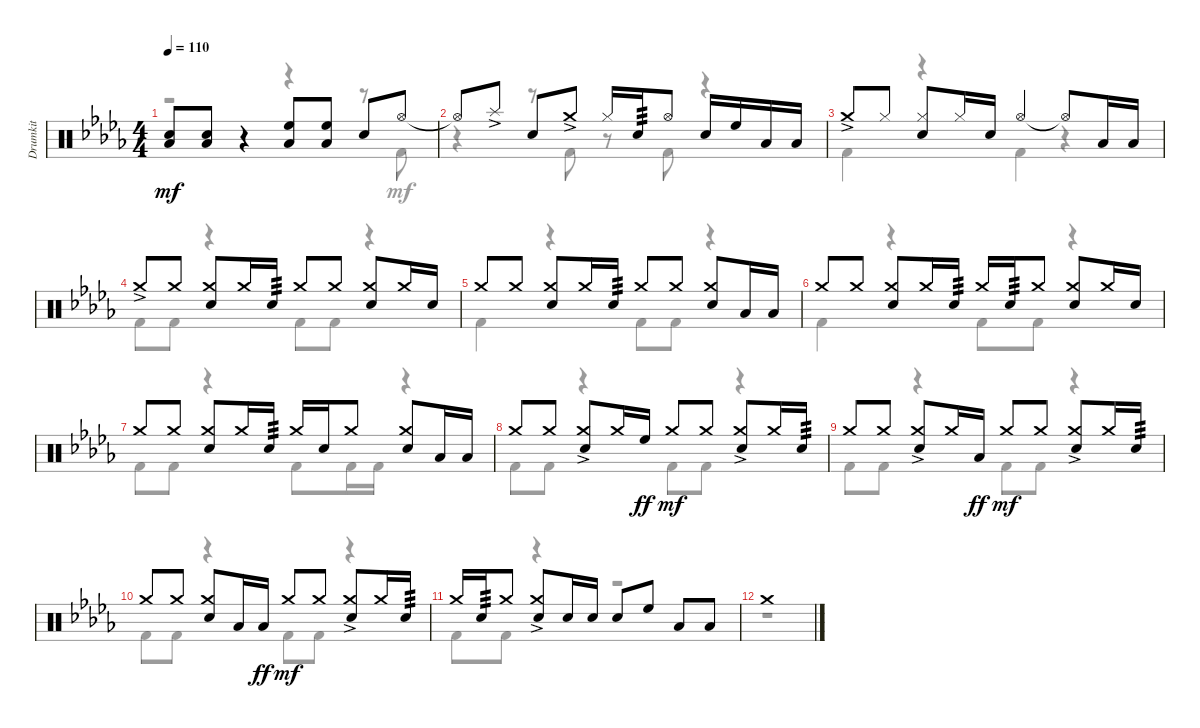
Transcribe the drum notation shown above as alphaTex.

\track ("Drumkit" "Drumkit") {instrument percussion}
\staff {score}
\articulation defaults
\voice
\ts (4 4)
\tempo 110
\clef neutral
\ks db
("Snare (hit) 2" "Low Floor Tom (hit)").8{dy mf} ("Snare (hit) 2" "Low Floor Tom (hit)").8 r.4 ("High Floor Tom (hit)" "Low Floor Tom (hit)").8 ("High Floor Tom (hit)" "Low Floor Tom (hit)").8 "Snare (hit) 2".8 "Hi-Hat (open)".8 |
"Hi-Hat (open)"{t}.8 "Splash (hit)"{ac}.8 "Snare (hit) 2".8 "Crash medium (hit)"{ac}.8 "Hi-Hat (closed)".16 "Snare (hit) 2".16{tp 3} "Hi-Hat (open)".8 "Snare (hit) 2".16 "High Floor Tom (hit)".16 "Low Floor Tom (hit)".16 "Low Floor Tom (hit)".16 |
"Crash medium (hit)"{ac}.8 "Hi-Hat (closed)".8 ("Hi-Hat (closed)" "Snare (hit) 2").8 "Hi-Hat (closed)".16 "Snare (hit) 2".16 "Hi-Hat (open)".4 "Hi-Hat (open)"{t}.8 "Low Floor Tom (hit)".16 "Low Floor Tom (hit)".16 |
\section ("" "")
"Crash medium (hit)"{ac}.8 "Crash medium (hit)".8 ("Crash medium (hit)" "Snare (hit) 2").8 "Crash medium (hit)".16 "Snare (hit) 2".16{tp 3} "Crash medium (hit)".8 "Crash medium (hit)".8 ("Crash medium (hit)" "Snare (hit) 2").8 "Crash medium (hit)".16 "Snare (hit) 2".16 |
"Crash medium (hit)".8 "Crash medium (hit)".8 ("Crash medium (hit)" "Snare (hit) 2").8 "Crash medium (hit)".16 "Snare (hit) 2".16{tp 3} "Crash medium (hit)".8 "Crash medium (hit)".8 ("Crash medium (hit)" "Snare (hit) 2").8 "Low Floor Tom (hit)".16 "Low Floor Tom (hit)".16 |
"Crash medium (hit)".8 "Crash medium (hit)".8 ("Crash medium (hit)" "Snare (hit) 2").8 "Crash medium (hit)".16 "Snare (hit) 2".16{tp 3} "Crash medium (hit)".16 "Snare (hit) 2".16{tp 3} "Crash medium (hit)".8 ("Crash medium (hit)" "Snare (hit) 2").8 "Crash medium (hit)".16 "Snare (hit) 2".16 |
"Crash medium (hit)".8 "Crash medium (hit)".8 ("Crash medium (hit)" "Snare (hit) 2").8 "Crash medium (hit)".16 "Snare (hit) 2".16{tp 3} "Crash medium (hit)".16 "Snare (hit) 2".16 "Crash medium (hit)".8 ("Crash medium (hit)" "Snare (hit) 2").8 "Low Floor Tom (hit)".16 "Low Floor Tom (hit)".16 |
"Crash medium (hit)".8 "Crash medium (hit)".8 ("Crash medium (hit)"{ac} "Snare (hit) 2").8 "Crash medium (hit)".16 "High Floor Tom (hit)".16{dy ff} "Crash medium (hit)".8{dy mf} "Crash medium (hit)".8 ("Crash medium (hit)"{ac} "Snare (hit) 2").8 "Crash medium (hit)".16 "Snare (hit) 2".16{tp 3} |
"Crash medium (hit)".8 "Crash medium (hit)".8 ("Crash medium (hit)"{ac} "Snare (hit) 2").8 "Crash medium (hit)".16 "Low Floor Tom (hit)".16{dy ff} "Crash medium (hit)".8{dy mf} "Crash medium (hit)".8 ("Crash medium (hit)"{ac} "Snare (hit) 2").8 "Crash medium (hit)".16 "Snare (hit) 2".16{tp 3} |
"Crash medium (hit)".8 "Crash medium (hit)".8 ("Crash medium (hit)" "Snare (hit) 2").8 "Low Floor Tom (hit)".16 "Low Floor Tom (hit)".16{dy ff} "Crash medium (hit)".8{dy mf} "Crash medium (hit)".8 ("Crash medium (hit)"{ac} "Snare (hit) 2").8 "Crash medium (hit)".16 "Snare (hit) 2".16{tp 3} |
"Crash medium (hit)".16 "Snare (hit) 2".16{tp 3} "Crash medium (hit)".8 ("Crash medium (hit)"{ac} "Snare (hit) 2").8 "Snare (hit) 2".16 "Snare (hit) 2".16 "Snare (hit) 2".8 "High Floor Tom (hit)".8 "Low Floor Tom (hit)".8 "Low Floor Tom (hit)".8 |
\section ("" "")
"Crash medium (hit)".1 |
|
|
|
\voice
\clef neutral
\ottava regular
\simile none
\ks db
r.2{dy mf} r.4 r.8 "Kick (hit) 2".8 |
r.4 r.8 "Kick (hit) 2".8 r.8 "Kick (hit) 2".8 r.4 |
"Kick (hit) 2".4 r.4 "Kick (hit) 2".4 r.4 |
"Kick (hit) 2".8 "Kick (hit) 2".8 r.4 "Kick (hit) 2".8 "Kick (hit) 2".8 r.4 |
"Kick (hit) 2".4 r.4 "Kick (hit) 2".8 "Kick (hit) 2".8 r.4 |
"Kick (hit) 2".4 r.4 "Kick (hit) 2".8 "Kick (hit) 2".8 r.4 |
"Kick (hit) 2".8 "Kick (hit) 2".8 r.4 "Kick (hit) 2".8 "Kick (hit) 2".16 "Kick (hit) 2".16 r.4 |
"Kick (hit) 2".8 "Kick (hit) 2".8 r.4 "Kick (hit) 2".8 "Kick (hit) 2".8 r.4 |
"Kick (hit) 2".8 "Kick (hit) 2".8 r.4 "Kick (hit) 2".8 "Kick (hit) 2".8 r.4 |
"Kick (hit) 2".8 "Kick (hit) 2".8 r.4 "Kick (hit) 2".8 "Kick (hit) 2".8 r.4 |
"Kick (hit) 2".8 "Kick (hit) 2".8 r.4 r.2 |
r.1 |
|
|
|
